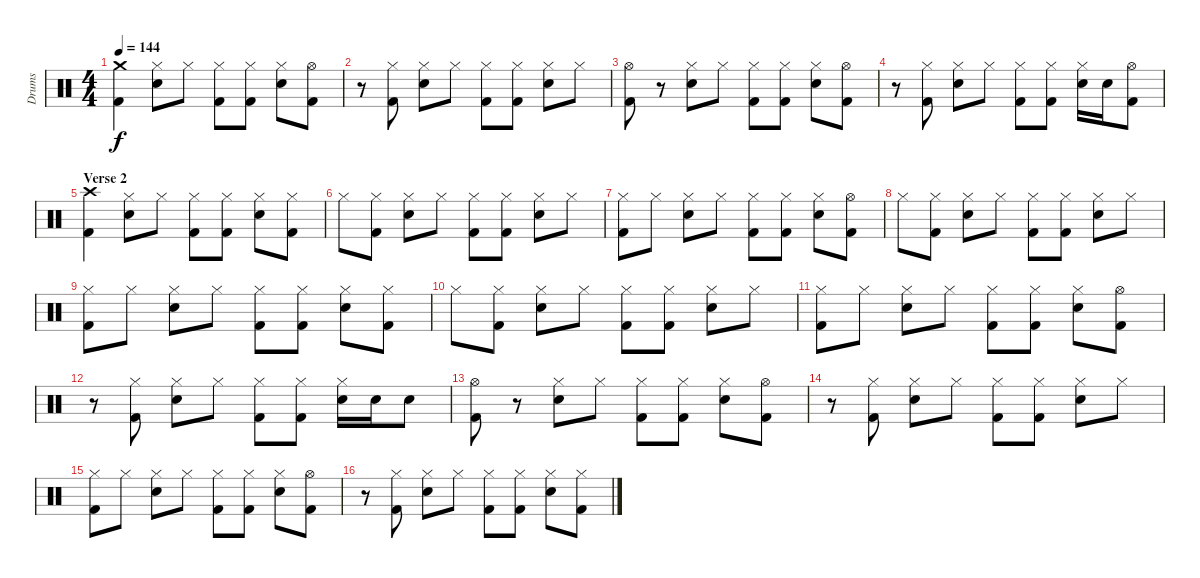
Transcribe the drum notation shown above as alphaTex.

\track ("Drums" "Drums") {instrument percussion}
\staff {score}
\articulation defaults
\ts (4 4)
\tempo 144
\clef neutral
\ks c
("Crash medium (hit)" "Kick (hit) 2").4{dy f} ("Hi-Hat (closed)" "Snare (hit) 2").8 "Hi-Hat (closed)".8 ("Hi-Hat (closed)" "Kick (hit) 2").8 ("Hi-Hat (closed)" "Kick (hit) 2").8 ("Hi-Hat (closed)" "Snare (hit) 2").8 ("Hi-Hat (open)" "Kick (hit) 2").8 |
r.8 ("Hi-Hat (closed)" "Kick (hit) 2").8 ("Hi-Hat (closed)" "Snare (hit) 2").8 "Hi-Hat (closed)".8 ("Hi-Hat (closed)" "Kick (hit) 2").8 ("Hi-Hat (closed)" "Kick (hit) 2").8 ("Hi-Hat (closed)" "Snare (hit) 2").8 "Hi-Hat (closed)".8 |
("Hi-Hat (open)" "Kick (hit) 2").8 r.8 ("Hi-Hat (closed)" "Snare (hit) 2").8 "Hi-Hat (closed)".8 ("Hi-Hat (closed)" "Kick (hit) 2").8 ("Hi-Hat (closed)" "Kick (hit) 2").8 ("Hi-Hat (closed)" "Snare (hit) 2").8 ("Hi-Hat (open)" "Kick (hit) 2").8 |
r.8 ("Hi-Hat (closed)" "Kick (hit) 2").8 ("Hi-Hat (closed)" "Snare (hit) 2").8 "Hi-Hat (closed)".8 ("Hi-Hat (closed)" "Kick (hit) 2").8 ("Hi-Hat (closed)" "Kick (hit) 2").8 ("Hi-Hat (closed)" "Snare (hit) 2").16 "Snare (hit) 2".16 ("Hi-Hat (open)" "Kick (hit) 2").8 |
\section ("" "Verse 2")
("Crash high (hit)" "Kick (hit) 2").4 ("Hi-Hat (closed)" "Snare (hit) 2").8 "Hi-Hat (closed)".8 ("Hi-Hat (closed)" "Kick (hit) 2").8 ("Hi-Hat (closed)" "Kick (hit) 2").8 ("Hi-Hat (closed)" "Snare (hit) 2").8 ("Hi-Hat (closed)" "Kick (hit) 2").8 |
"Hi-Hat (closed)".8 ("Hi-Hat (closed)" "Kick (hit) 2").8 ("Hi-Hat (closed)" "Snare (hit) 2").8 "Hi-Hat (closed)".8 ("Hi-Hat (closed)" "Kick (hit) 2").8 ("Hi-Hat (closed)" "Kick (hit) 2").8 ("Hi-Hat (closed)" "Snare (hit) 2").8 "Hi-Hat (closed)".8 |
("Hi-Hat (closed)" "Kick (hit) 2").8 "Hi-Hat (closed)".8 ("Hi-Hat (closed)" "Snare (hit) 2").8 "Hi-Hat (closed)".8 ("Hi-Hat (closed)" "Kick (hit) 2").8 ("Hi-Hat (closed)" "Kick (hit) 2").8 ("Hi-Hat (closed)" "Snare (hit) 2").8 ("Hi-Hat (open)" "Kick (hit) 2").8 |
"Hi-Hat (closed)".8 ("Hi-Hat (closed)" "Kick (hit) 2").8 ("Hi-Hat (closed)" "Snare (hit) 2").8 "Hi-Hat (closed)".8 ("Hi-Hat (closed)" "Kick (hit) 2").8 ("Hi-Hat (closed)" "Kick (hit) 2").8 ("Hi-Hat (closed)" "Snare (hit) 2").8 "Hi-Hat (closed)".8 |
("Hi-Hat (closed)" "Kick (hit) 2").8 "Hi-Hat (closed)".8 ("Hi-Hat (closed)" "Snare (hit) 2").8 "Hi-Hat (closed)".8 ("Hi-Hat (closed)" "Kick (hit) 2").8 ("Hi-Hat (closed)" "Kick (hit) 2").8 ("Hi-Hat (closed)" "Snare (hit) 2").8 ("Hi-Hat (closed)" "Kick (hit) 2").8 |
"Hi-Hat (closed)".8 ("Hi-Hat (closed)" "Kick (hit) 2").8 ("Hi-Hat (closed)" "Snare (hit) 2").8 "Hi-Hat (closed)".8 ("Hi-Hat (closed)" "Kick (hit) 2").8 ("Hi-Hat (closed)" "Kick (hit) 2").8 ("Hi-Hat (closed)" "Snare (hit) 2").8 "Hi-Hat (closed)".8 |
("Hi-Hat (closed)" "Kick (hit) 2").8 "Hi-Hat (closed)".8 ("Hi-Hat (closed)" "Snare (hit) 2").8 "Hi-Hat (closed)".8 ("Hi-Hat (closed)" "Kick (hit) 2").8 ("Hi-Hat (closed)" "Kick (hit) 2").8 ("Hi-Hat (closed)" "Snare (hit) 2").8 ("Hi-Hat (open)" "Kick (hit) 2").8 |
r.8 ("Hi-Hat (closed)" "Kick (hit) 2").8 ("Hi-Hat (closed)" "Snare (hit) 2").8 "Hi-Hat (closed)".8 ("Hi-Hat (closed)" "Kick (hit) 2").8 ("Hi-Hat (closed)" "Kick (hit) 2").8 ("Hi-Hat (closed)" "Snare (hit) 2").16 "Snare (hit) 2".16 "Snare (hit) 2".8 |
("Hi-Hat (open)" "Kick (hit) 2").8 r.8 ("Hi-Hat (closed)" "Snare (hit) 2").8 "Hi-Hat (closed)".8 ("Hi-Hat (closed)" "Kick (hit) 2").8 ("Hi-Hat (closed)" "Kick (hit) 2").8 ("Hi-Hat (closed)" "Snare (hit) 2").8 ("Hi-Hat (open)" "Kick (hit) 2").8 |
r.8 ("Hi-Hat (closed)" "Kick (hit) 2").8 ("Hi-Hat (closed)" "Snare (hit) 2").8 "Hi-Hat (closed)".8 ("Hi-Hat (closed)" "Kick (hit) 2").8 ("Hi-Hat (closed)" "Kick (hit) 2").8 ("Hi-Hat (closed)" "Snare (hit) 2").8 "Hi-Hat (closed)".8 |
("Hi-Hat (closed)" "Kick (hit) 2").8 "Hi-Hat (closed)".8 ("Hi-Hat (closed)" "Snare (hit) 2").8 "Hi-Hat (closed)".8 ("Hi-Hat (closed)" "Kick (hit) 2").8 ("Hi-Hat (closed)" "Kick (hit) 2").8 ("Hi-Hat (closed)" "Snare (hit) 2").8 ("Hi-Hat (open)" "Kick (hit) 2").8 |
r.8 ("Hi-Hat (closed)" "Kick (hit) 2").8 ("Hi-Hat (closed)" "Snare (hit) 2").8 "Hi-Hat (closed)".8 ("Hi-Hat (closed)" "Kick (hit) 2").8 ("Hi-Hat (closed)" "Kick (hit) 2").8 ("Hi-Hat (closed)" "Snare (hit) 2").8 ("Hi-Hat (closed)" "Kick (hit) 2").8
